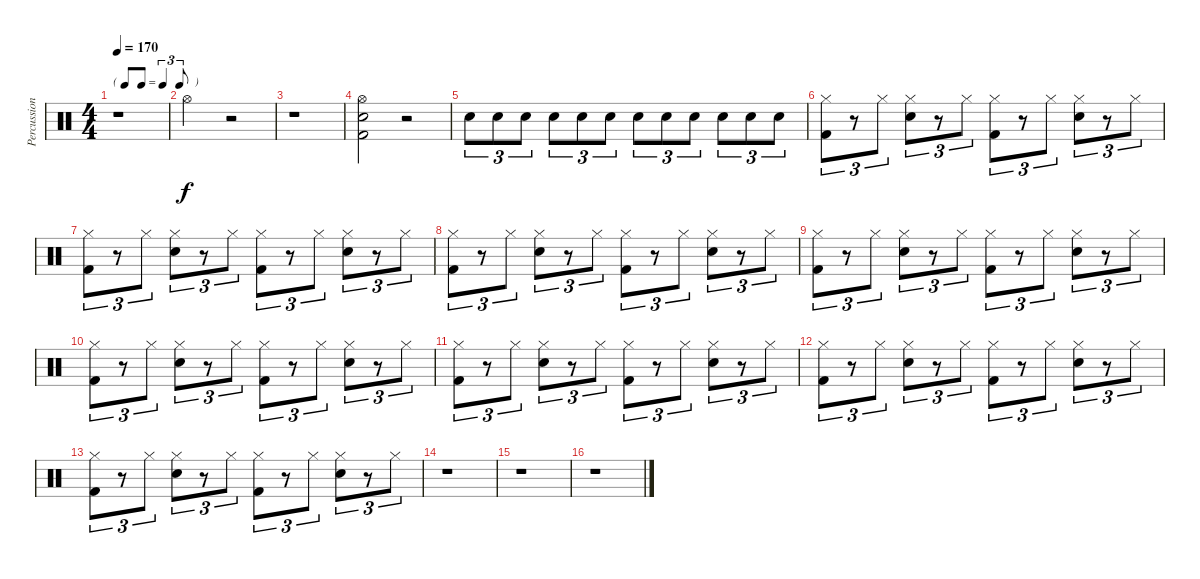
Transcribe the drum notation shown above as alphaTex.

\track ("Percussion" "Percussion") {instrument percussion}
\staff {score}
\articulation defaults
\ts (4 4)
\tf triplet8th
\tempo 170
\clef neutral
\ks c
r.1{dy f} |
"Hi-Hat (open)".2 r.2 |
r.1 |
("Hi-Hat (open)" "Snare (hit) 2" "Kick (hit) 2").2 r.2 |
"Snare (hit) 2".8{tu (3 2)} "Snare (hit) 2".8{tu (3 2)} "Snare (hit) 2".8{tu (3 2)} "Snare (hit) 2".8{tu (3 2)} "Snare (hit) 2".8{tu (3 2)} "Snare (hit) 2".8{tu (3 2)} "Snare (hit) 2".8{tu (3 2)} "Snare (hit) 2".8{tu (3 2)} "Snare (hit) 2".8{tu (3 2)} "Snare (hit) 2".8{tu (3 2)} "Snare (hit) 2".8{tu (3 2)} "Snare (hit) 2".8{tu (3 2)} |
("Hi-Hat (closed)" "Kick (hit) 2").8{tu (3 2)} r.8{tu (3 2)} "Hi-Hat (closed)".8{tu (3 2)} ("Hi-Hat (closed)" "Snare (hit) 2").8{tu (3 2)} r.8{tu (3 2)} "Hi-Hat (closed)".8{tu (3 2)} ("Hi-Hat (closed)" "Kick (hit) 2").8{tu (3 2)} r.8{tu (3 2)} "Hi-Hat (closed)".8{tu (3 2)} ("Hi-Hat (closed)" "Snare (hit) 2").8{tu (3 2)} r.8{tu (3 2)} "Hi-Hat (closed)".8{tu (3 2)} |
("Hi-Hat (closed)" "Kick (hit) 2").8{tu (3 2)} r.8{tu (3 2)} "Hi-Hat (closed)".8{tu (3 2)} ("Hi-Hat (closed)" "Snare (hit) 2").8{tu (3 2)} r.8{tu (3 2)} "Hi-Hat (closed)".8{tu (3 2)} ("Hi-Hat (closed)" "Kick (hit) 2").8{tu (3 2)} r.8{tu (3 2)} "Hi-Hat (closed)".8{tu (3 2)} ("Hi-Hat (closed)" "Snare (hit) 2").8{tu (3 2)} r.8{tu (3 2)} "Hi-Hat (closed)".8{tu (3 2)} |
("Hi-Hat (closed)" "Kick (hit) 2").8{tu (3 2)} r.8{tu (3 2)} "Hi-Hat (closed)".8{tu (3 2)} ("Hi-Hat (closed)" "Snare (hit) 2").8{tu (3 2)} r.8{tu (3 2)} "Hi-Hat (closed)".8{tu (3 2)} ("Hi-Hat (closed)" "Kick (hit) 2").8{tu (3 2)} r.8{tu (3 2)} "Hi-Hat (closed)".8{tu (3 2)} ("Hi-Hat (closed)" "Snare (hit) 2").8{tu (3 2)} r.8{tu (3 2)} "Hi-Hat (closed)".8{tu (3 2)} |
("Hi-Hat (closed)" "Kick (hit) 2").8{tu (3 2)} r.8{tu (3 2)} "Hi-Hat (closed)".8{tu (3 2)} ("Hi-Hat (closed)" "Snare (hit) 2").8{tu (3 2)} r.8{tu (3 2)} "Hi-Hat (closed)".8{tu (3 2)} ("Hi-Hat (closed)" "Kick (hit) 2").8{tu (3 2)} r.8{tu (3 2)} "Hi-Hat (closed)".8{tu (3 2)} ("Hi-Hat (closed)" "Snare (hit) 2").8{tu (3 2)} r.8{tu (3 2)} "Hi-Hat (closed)".8{tu (3 2)} |
("Hi-Hat (closed)" "Kick (hit) 2").8{tu (3 2)} r.8{tu (3 2)} "Hi-Hat (closed)".8{tu (3 2)} ("Hi-Hat (closed)" "Snare (hit) 2").8{tu (3 2)} r.8{tu (3 2)} "Hi-Hat (closed)".8{tu (3 2)} ("Hi-Hat (closed)" "Kick (hit) 2").8{tu (3 2)} r.8{tu (3 2)} "Hi-Hat (closed)".8{tu (3 2)} ("Hi-Hat (closed)" "Snare (hit) 2").8{tu (3 2)} r.8{tu (3 2)} "Hi-Hat (closed)".8{tu (3 2)} |
("Hi-Hat (closed)" "Kick (hit) 2").8{tu (3 2)} r.8{tu (3 2)} "Hi-Hat (closed)".8{tu (3 2)} ("Hi-Hat (closed)" "Snare (hit) 2").8{tu (3 2)} r.8{tu (3 2)} "Hi-Hat (closed)".8{tu (3 2)} ("Hi-Hat (closed)" "Kick (hit) 2").8{tu (3 2)} r.8{tu (3 2)} "Hi-Hat (closed)".8{tu (3 2)} ("Hi-Hat (closed)" "Snare (hit) 2").8{tu (3 2)} r.8{tu (3 2)} "Hi-Hat (closed)".8{tu (3 2)} |
("Hi-Hat (closed)" "Kick (hit) 2").8{tu (3 2)} r.8{tu (3 2)} "Hi-Hat (closed)".8{tu (3 2)} ("Hi-Hat (closed)" "Snare (hit) 2").8{tu (3 2)} r.8{tu (3 2)} "Hi-Hat (closed)".8{tu (3 2)} ("Hi-Hat (closed)" "Kick (hit) 2").8{tu (3 2)} r.8{tu (3 2)} "Hi-Hat (closed)".8{tu (3 2)} ("Hi-Hat (closed)" "Snare (hit) 2").8{tu (3 2)} r.8{tu (3 2)} "Hi-Hat (closed)".8{tu (3 2)} |
("Hi-Hat (closed)" "Kick (hit) 2").8{tu (3 2)} r.8{tu (3 2)} "Hi-Hat (closed)".8{tu (3 2)} ("Hi-Hat (closed)" "Snare (hit) 2").8{tu (3 2)} r.8{tu (3 2)} "Hi-Hat (closed)".8{tu (3 2)} ("Hi-Hat (closed)" "Kick (hit) 2").8{tu (3 2)} r.8{tu (3 2)} "Hi-Hat (closed)".8{tu (3 2)} ("Hi-Hat (closed)" "Snare (hit) 2").8{tu (3 2)} r.8{tu (3 2)} "Hi-Hat (closed)".8{tu (3 2)} |
r.1 |
r.1 |
r.1
